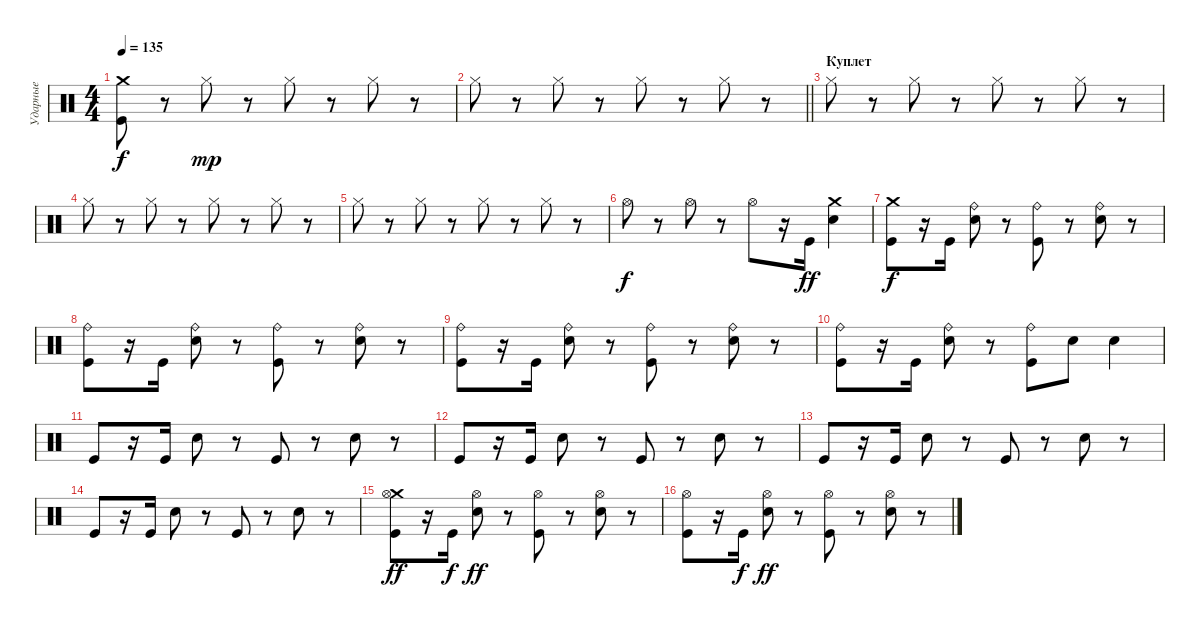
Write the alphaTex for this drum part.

\track ("Ударные" "Ударные") {instrument percussion}
\staff {score}
\articulation defaults
\ts (4 4)
\tempo 135
\clef neutral
\ks c
("Crash medium (hit)" "Kick (hit)").8{dy f} r.8 "Hi-Hat (closed)".8{dy mp} r.8 "Hi-Hat (closed)".8 r.8 "Hi-Hat (closed)".8 r.8 |
\barLineRight lightlight "Hi-Hat (closed)".8
r.8 "Hi-Hat (closed)".8 r.8 "Hi-Hat (closed)".8 r.8 "Hi-Hat (closed)".8 r.8 |
\section ("" "Куплет")
"Hi-Hat (closed)".8 r.8 "Hi-Hat (closed)".8 r.8 "Hi-Hat (closed)".8 r.8 "Hi-Hat (closed)".8 r.8 |
"Hi-Hat (closed)".8 r.8 "Hi-Hat (closed)".8 r.8 "Hi-Hat (closed)".8 r.8 "Hi-Hat (closed)".8 r.8 |
"Hi-Hat (closed)".8 r.8 "Hi-Hat (closed)".8 r.8 "Hi-Hat (closed)".8 r.8 "Hi-Hat (closed)".8 r.8 |
"Hi-Hat (open)".8{dy f} r.8 "Hi-Hat (open)".8 r.8 "Hi-Hat (open)".8 r.16 "Kick (hit)".16{dy ff} ("Crash medium (hit)" "Electric Snare (hit)").4 |
("Crash medium (hit)" "Kick (hit)").8{dy f} r.16 "Kick (hit)".16 ("Electric Snare (hit)" "Ride (bell)").8 r.8 ("Kick (hit)" "Ride (bell)").8 r.8 ("Electric Snare (hit)" "Ride (bell)").8 r.8 |
("Kick (hit)" "Ride (bell)").8 r.16 "Kick (hit)".16 ("Electric Snare (hit)" "Ride (bell)").8 r.8 ("Kick (hit)" "Ride (bell)").8 r.8 ("Electric Snare (hit)" "Ride (bell)").8 r.8 |
("Kick (hit)" "Ride (bell)").8 r.16 "Kick (hit)".16 ("Electric Snare (hit)" "Ride (bell)").8 r.8 ("Kick (hit)" "Ride (bell)").8 r.8 ("Electric Snare (hit)" "Ride (bell)").8 r.8 |
("Kick (hit)" "Ride (bell)").8 r.16 "Kick (hit)".16 ("Electric Snare (hit)" "Ride (bell)").8 r.8 ("Kick (hit)" "Ride (bell)").8 "Electric Snare (hit)".8 "Electric Snare (hit)".4 |
"Kick (hit)".8 r.16 "Kick (hit)".16 "Electric Snare (hit)".8 r.8 "Kick (hit)".8 r.8 "Electric Snare (hit)".8 r.8 |
"Kick (hit)".8 r.16 "Kick (hit)".16 "Electric Snare (hit)".8 r.8 "Kick (hit)".8 r.8 "Electric Snare (hit)".8 r.8 |
"Kick (hit)".8 r.16 "Kick (hit)".16 "Electric Snare (hit)".8 r.8 "Kick (hit)".8 r.8 "Electric Snare (hit)".8 r.8 |
"Kick (hit)".8 r.16 "Kick (hit)".16 "Electric Snare (hit)".8 r.8 "Kick (hit)".8 r.8 "Electric Snare (hit)".8 r.8 |
("Crash medium (hit)" "Kick (hit)" "Hi-Hat (open)").8{dy ff} r.16 "Kick (hit)".16{dy f} ("Electric Snare (hit)" "Hi-Hat (open)").8{dy ff} r.8 ("Kick (hit)" "Hi-Hat (open)").8 r.8 ("Electric Snare (hit)" "Hi-Hat (open)").8 r.8 |
("Kick (hit)" "Hi-Hat (open)").8 r.16 "Kick (hit)".16{dy f} ("Electric Snare (hit)" "Hi-Hat (open)").8{dy ff} r.8 ("Kick (hit)" "Hi-Hat (open)").8 r.8 ("Electric Snare (hit)" "Hi-Hat (open)").8 r.8
